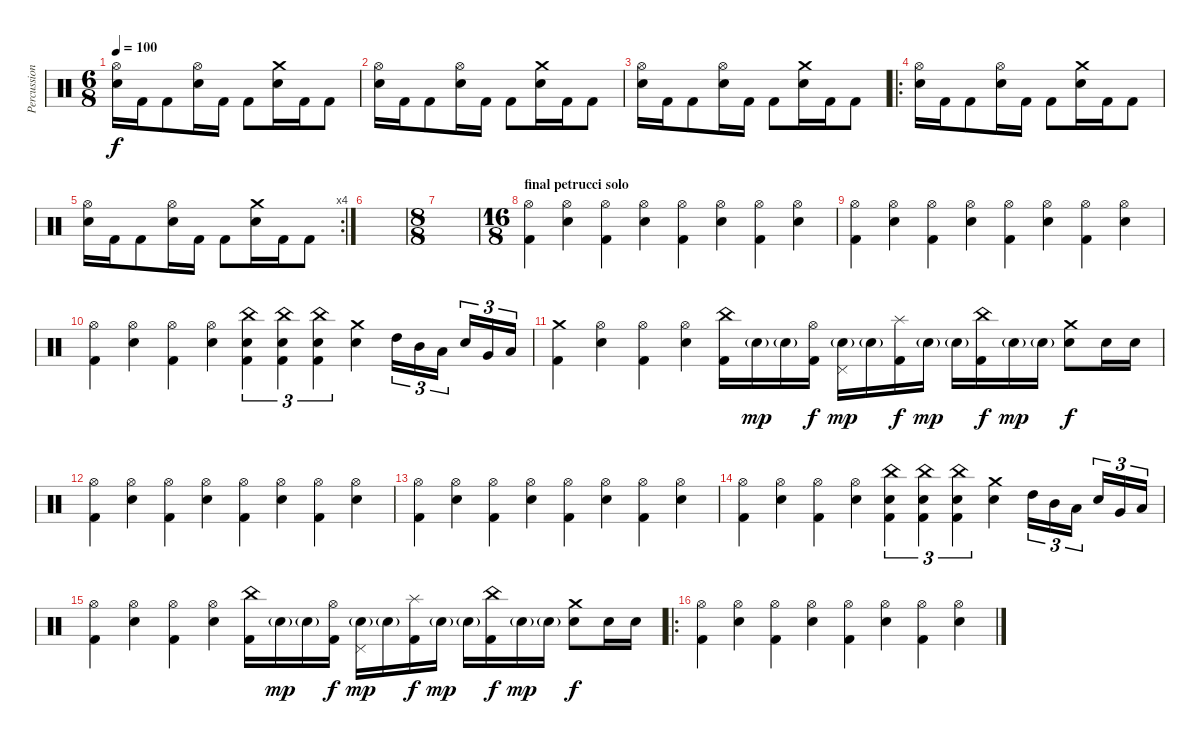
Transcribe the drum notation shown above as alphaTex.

\track ("Percussions" "Percussion") {instrument percussion}
\staff {score}
\articulation defaults
\ts (6 8)
\tempo 100
\clef neutral
\ks c
("Hi-Hat (open)" "Electric Snare (hit)").16{dy f} "Kick (hit) 2".16 "Kick (hit) 2".8 ("Hi-Hat (open)" "Electric Snare (hit)").16 "Kick (hit) 2".16 "Kick (hit) 2".8 ("Crash medium (hit)" "Electric Snare (hit)").16 "Kick (hit) 2".16 "Kick (hit) 2".8 |
("Hi-Hat (open)" "Electric Snare (hit)").16 "Kick (hit) 2".16 "Kick (hit) 2".8 ("Hi-Hat (open)" "Electric Snare (hit)").16 "Kick (hit) 2".16 "Kick (hit) 2".8 ("Crash medium (hit)" "Electric Snare (hit)").16 "Kick (hit) 2".16 "Kick (hit) 2".8 |
("Hi-Hat (open)" "Electric Snare (hit)").16 "Kick (hit) 2".16 "Kick (hit) 2".8 ("Hi-Hat (open)" "Electric Snare (hit)").16 "Kick (hit) 2".16 "Kick (hit) 2".8 ("Crash medium (hit)" "Electric Snare (hit)").16 "Kick (hit) 2".16 "Kick (hit) 2".8 |
\ro
("Hi-Hat (open)" "Electric Snare (hit)").16 "Kick (hit) 2".16 "Kick (hit) 2".8 ("Hi-Hat (open)" "Electric Snare (hit)").16 "Kick (hit) 2".16 "Kick (hit) 2".8 ("Crash medium (hit)" "Electric Snare (hit)").16 "Kick (hit) 2".16 "Kick (hit) 2".8 |
\rc 4
("Hi-Hat (open)" "Electric Snare (hit)").16 "Kick (hit) 2".16 "Kick (hit) 2".8 ("Hi-Hat (open)" "Electric Snare (hit)").16 "Kick (hit) 2".16 "Kick (hit) 2".8 ("Crash medium (hit)" "Electric Snare (hit)").16 "Kick (hit) 2".16 "Kick (hit) 2".8 |
|
\ts (8 8)
|
\ts (16 8)
\section ("" "final petrucci solo")
("Hi-Hat (open)" "Kick (hit) 2").4 ("Hi-Hat (open)" "Electric Snare (hit)").4 ("Hi-Hat (open)" "Kick (hit) 2").4 ("Hi-Hat (open)" "Electric Snare (hit)").4 ("Hi-Hat (open)" "Kick (hit) 2").4 ("Hi-Hat (open)" "Electric Snare (hit)").4 ("Hi-Hat (open)" "Kick (hit) 2").4 ("Hi-Hat (open)" "Electric Snare (hit)").4 |
("Hi-Hat (open)" "Kick (hit) 2").4 ("Hi-Hat (open)" "Electric Snare (hit)").4 ("Hi-Hat (open)" "Kick (hit) 2").4 ("Hi-Hat (open)" "Electric Snare (hit)").4 ("Hi-Hat (open)" "Kick (hit) 2").4 ("Hi-Hat (open)" "Electric Snare (hit)").4 ("Hi-Hat (open)" "Kick (hit) 2").4 ("Hi-Hat (open)" "Electric Snare (hit)").4 |
("Hi-Hat (open)" "Kick (hit) 2").4 ("Hi-Hat (open)" "Electric Snare (hit)").4 ("Hi-Hat (open)" "Kick (hit) 2").4 ("Hi-Hat (open)" "Electric Snare (hit)").4 ("China (hit)" "Electric Snare (hit)" "Kick (hit) 2").4{tu (3 2)} ("China (hit)" "Electric Snare (hit)" "Kick (hit) 2").4{tu (3 2)} ("China (hit)" "Electric Snare (hit)" "Kick (hit) 2").4{tu (3 2)} ("Crash medium (hit)" "Electric Snare (hit)").4 "High Tom (hit)".16{tu (3 2)} "Mid Tom (hit)".16{tu (3 2)} "Low Tom (hit)".16{tu (3 2)} "Electric Snare (hit)".16{tu (3 2)} "Very Low Tom (hit)".16{tu (3 2)} "Low Floor Tom (hit)".16{tu (3 2)} |
("Crash medium (hit)" "Kick (hit) 2").4 ("Hi-Hat (open)" "Electric Snare (hit)").4 ("Hi-Hat (open)" "Kick (hit) 2").4 ("Hi-Hat (open)" "Electric Snare (hit)").4 ("China (hit)" "Kick (hit) 2").16 "Electric Snare (hit)"{g}.16{dy mp} "Electric Snare (hit)"{g}.16 ("Hi-Hat (open)" "Kick (hit) 2").16{dy f} ("Pedal Hi-Hat (hit)" "Electric Snare (hit)"{g}).16{dy mp} "Electric Snare (hit)"{g}.16 ("Splash (hit)" "Kick (hit) 2").16{dy f} "Electric Snare (hit)"{g}.16{dy mp} "Electric Snare (hit)"{g}.16 ("China (hit)" "Kick (hit) 2").16{dy f} "Electric Snare (hit)"{g}.16{dy mp} "Electric Snare (hit)"{g}.16 ("Crash medium (hit)" "Electric Snare (hit)").8{dy f} "Electric Snare (hit)".16 "Electric Snare (hit)".16 |
("Hi-Hat (open)" "Kick (hit) 2").4 ("Hi-Hat (open)" "Electric Snare (hit)").4 ("Hi-Hat (open)" "Kick (hit) 2").4 ("Hi-Hat (open)" "Electric Snare (hit)").4 ("Hi-Hat (open)" "Kick (hit) 2").4 ("Hi-Hat (open)" "Electric Snare (hit)").4 ("Hi-Hat (open)" "Kick (hit) 2").4 ("Hi-Hat (open)" "Electric Snare (hit)").4 |
("Hi-Hat (open)" "Kick (hit) 2").4 ("Hi-Hat (open)" "Electric Snare (hit)").4 ("Hi-Hat (open)" "Kick (hit) 2").4 ("Hi-Hat (open)" "Electric Snare (hit)").4 ("Hi-Hat (open)" "Kick (hit) 2").4 ("Hi-Hat (open)" "Electric Snare (hit)").4 ("Hi-Hat (open)" "Kick (hit) 2").4 ("Hi-Hat (open)" "Electric Snare (hit)").4 |
("Hi-Hat (open)" "Kick (hit) 2").4 ("Hi-Hat (open)" "Electric Snare (hit)").4 ("Hi-Hat (open)" "Kick (hit) 2").4 ("Hi-Hat (open)" "Electric Snare (hit)").4 ("China (hit)" "Electric Snare (hit)" "Kick (hit) 2").4{tu (3 2)} ("China (hit)" "Electric Snare (hit)" "Kick (hit) 2").4{tu (3 2)} ("China (hit)" "Electric Snare (hit)" "Kick (hit) 2").4{tu (3 2)} ("Crash medium (hit)" "Electric Snare (hit)").4 "High Tom (hit)".16{tu (3 2)} "Mid Tom (hit)".16{tu (3 2)} "Low Tom (hit)".16{tu (3 2)} "Electric Snare (hit)".16{tu (3 2)} "Very Low Tom (hit)".16{tu (3 2)} "Low Floor Tom (hit)".16{tu (3 2)} |
("Hi-Hat (open)" "Kick (hit) 2").4 ("Hi-Hat (open)" "Electric Snare (hit)").4 ("Hi-Hat (open)" "Kick (hit) 2").4 ("Hi-Hat (open)" "Electric Snare (hit)").4 ("China (hit)" "Kick (hit) 2").16 "Electric Snare (hit)"{g}.16{dy mp} "Electric Snare (hit)"{g}.16 ("Hi-Hat (open)" "Kick (hit) 2").16{dy f} ("Pedal Hi-Hat (hit)" "Electric Snare (hit)"{g}).16{dy mp} "Electric Snare (hit)"{g}.16 ("Splash (hit)" "Kick (hit) 2").16{dy f} "Electric Snare (hit)"{g}.16{dy mp} "Electric Snare (hit)"{g}.16 ("China (hit)" "Kick (hit) 2").16{dy f} "Electric Snare (hit)"{g}.16{dy mp} "Electric Snare (hit)"{g}.16 ("Crash medium (hit)" "Electric Snare (hit)").8{dy f} "Electric Snare (hit)".16 "Electric Snare (hit)".16 |
\ro
("Hi-Hat (open)" "Kick (hit) 2").4 ("Hi-Hat (open)" "Electric Snare (hit)").4 ("Hi-Hat (open)" "Kick (hit) 2").4 ("Hi-Hat (open)" "Electric Snare (hit)").4 ("Hi-Hat (open)" "Kick (hit) 2").4 ("Hi-Hat (open)" "Electric Snare (hit)").4 ("Hi-Hat (open)" "Kick (hit) 2").4 ("Hi-Hat (open)" "Electric Snare (hit)").4
